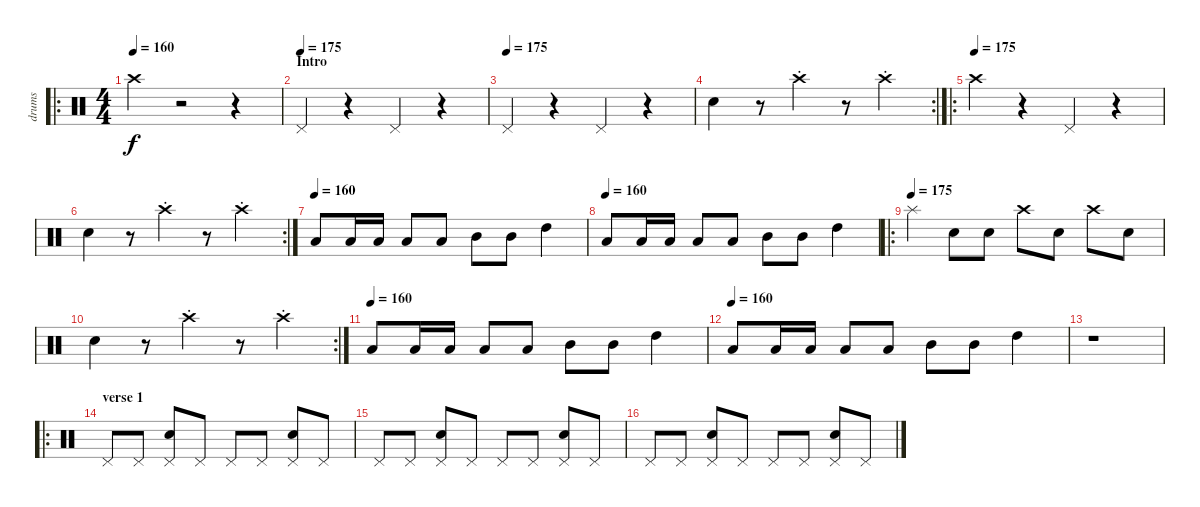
\track ("drums" "drums") {instrument percussion}
\staff {score}
\articulation defaults
\ro
\ts (4 4)
\tempo 160
\tempo 175
\tempo 160
\clef neutral
\ks c "Crash high (hit)".4{dy f}
r.2 r.4 |
\section ("" "Intro")
\tempo (175)
"Pedal Hi-Hat (hit)".4 r.4 "Pedal Hi-Hat (hit)".4 r.4 |
\tempo (175)
"Pedal Hi-Hat (hit)".4 r.4 "Pedal Hi-Hat (hit)".4 r.4 |
\rc 2 "Electric Snare (hit)".4
r.8 "Crash high (hit)"{st}.4 r.8 "Crash high (hit)"{st}.4 |
\ro
\tempo (175)
"Crash high (hit)".4 r.4 "Pedal Hi-Hat (hit)".4 r.4 |
\rc 2 "Electric Snare (hit)".4
r.8 "Crash high (hit)"{st}.4 r.8 "Crash high (hit)"{st}.4 |
\tempo (160)
"Low Tom (hit)".8 "Low Tom (hit)".16 "Low Tom (hit)".16 "Low Tom (hit)".8 "Low Tom (hit)".8 "Mid Tom (hit)".8 "Mid Tom (hit)".8 "High Tom (hit)".4 |
\tempo (160)
"Low Tom (hit)".8 "Low Tom (hit)".16 "Low Tom (hit)".16 "Low Tom (hit)".8 "Low Tom (hit)".8 "Mid Tom (hit)".8 "Mid Tom (hit)".8 "High Tom (hit)".4 |
\ro
\tempo (175)
"Splash (hit)".4 "Electric Snare (hit)".8 "Electric Snare (hit)".8 "Crash high (hit)".8 "Electric Snare (hit)".8 "Crash high (hit)".8 "Electric Snare (hit)".8 |
\rc 2 "Electric Snare (hit)".4
r.8 "Crash high (hit)"{st}.4 r.8 "Crash high (hit)"{st}.4 |
\tempo (160)
"Low Tom (hit)".8 "Low Tom (hit)".16 "Low Tom (hit)".16 "Low Tom (hit)".8 "Low Tom (hit)".8 "Mid Tom (hit)".8 "Mid Tom (hit)".8 "High Tom (hit)".4 |
\tempo (160)
"Low Tom (hit)".8 "Low Tom (hit)".16 "Low Tom (hit)".16 "Low Tom (hit)".8 "Low Tom (hit)".8 "Mid Tom (hit)".8 "Mid Tom (hit)".8 "High Tom (hit)".4 |
r.1 |
\ro
\section ("" "verse 1")
"Pedal Hi-Hat (hit)".8 "Pedal Hi-Hat (hit)".8 ("Electric Snare (hit)" "Pedal Hi-Hat (hit)").8 "Pedal Hi-Hat (hit)".8 "Pedal Hi-Hat (hit)".8 "Pedal Hi-Hat (hit)".8 ("Electric Snare (hit)" "Pedal Hi-Hat (hit)").8 "Pedal Hi-Hat (hit)".8 |
\section ("" "")
"Pedal Hi-Hat (hit)".8 "Pedal Hi-Hat (hit)".8 ("Electric Snare (hit)" "Pedal Hi-Hat (hit)").8 "Pedal Hi-Hat (hit)".8 "Pedal Hi-Hat (hit)".8 "Pedal Hi-Hat (hit)".8 ("Electric Snare (hit)" "Pedal Hi-Hat (hit)").8 "Pedal Hi-Hat (hit)".8 |
"Pedal Hi-Hat (hit)".8 "Pedal Hi-Hat (hit)".8 ("Electric Snare (hit)" "Pedal Hi-Hat (hit)").8 "Pedal Hi-Hat (hit)".8 "Pedal Hi-Hat (hit)".8 "Pedal Hi-Hat (hit)".8 ("Electric Snare (hit)" "Pedal Hi-Hat (hit)").8 "Pedal Hi-Hat (hit)".8
